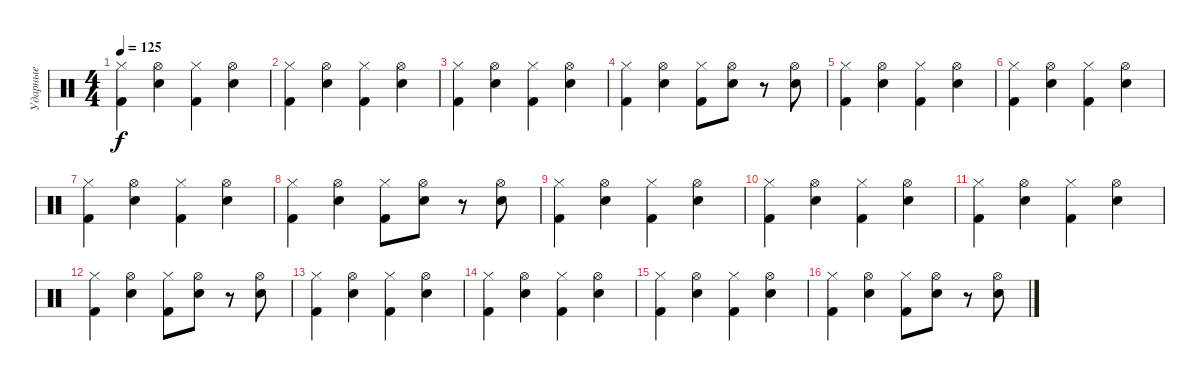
\track ("Ударные" "Ударные") {instrument percussion}
\staff {score}
\articulation defaults
\ts (4 4)
\tempo 125
\clef neutral
\ks c
("Hi-Hat (closed)" "Kick (hit) 2").4{dy f} ("Hi-Hat (open)" "Electric Snare (hit)").4 ("Hi-Hat (closed)" "Kick (hit) 2").4 ("Hi-Hat (open)" "Electric Snare (hit)").4 |
("Hi-Hat (closed)" "Kick (hit) 2").4 ("Hi-Hat (open)" "Electric Snare (hit)").4 ("Hi-Hat (closed)" "Kick (hit) 2").4 ("Hi-Hat (open)" "Electric Snare (hit)").4 |
("Hi-Hat (closed)" "Kick (hit) 2").4 ("Hi-Hat (open)" "Electric Snare (hit)").4 ("Hi-Hat (closed)" "Kick (hit) 2").4 ("Hi-Hat (open)" "Electric Snare (hit)").4 |
("Hi-Hat (closed)" "Kick (hit) 2").4 ("Hi-Hat (open)" "Electric Snare (hit)").4 ("Hi-Hat (closed)" "Kick (hit) 2").8 ("Hi-Hat (open)" "Electric Snare (hit)").8 r.8 ("Hi-Hat (open)" "Electric Snare (hit)").8 |
("Hi-Hat (closed)" "Kick (hit) 2").4 ("Hi-Hat (open)" "Electric Snare (hit)").4 ("Hi-Hat (closed)" "Kick (hit) 2").4 ("Hi-Hat (open)" "Electric Snare (hit)").4 |
("Hi-Hat (closed)" "Kick (hit) 2").4 ("Hi-Hat (open)" "Electric Snare (hit)").4 ("Hi-Hat (closed)" "Kick (hit) 2").4 ("Hi-Hat (open)" "Electric Snare (hit)").4 |
("Hi-Hat (closed)" "Kick (hit) 2").4 ("Hi-Hat (open)" "Electric Snare (hit)").4 ("Hi-Hat (closed)" "Kick (hit) 2").4 ("Hi-Hat (open)" "Electric Snare (hit)").4 |
("Hi-Hat (closed)" "Kick (hit) 2").4 ("Hi-Hat (open)" "Electric Snare (hit)").4 ("Hi-Hat (closed)" "Kick (hit) 2").8 ("Hi-Hat (open)" "Electric Snare (hit)").8 r.8 ("Hi-Hat (open)" "Electric Snare (hit)").8 |
("Hi-Hat (closed)" "Kick (hit) 2").4 ("Hi-Hat (open)" "Electric Snare (hit)").4 ("Hi-Hat (closed)" "Kick (hit) 2").4 ("Hi-Hat (open)" "Electric Snare (hit)").4 |
("Hi-Hat (closed)" "Kick (hit) 2").4 ("Hi-Hat (open)" "Electric Snare (hit)").4 ("Hi-Hat (closed)" "Kick (hit) 2").4 ("Hi-Hat (open)" "Electric Snare (hit)").4 |
("Hi-Hat (closed)" "Kick (hit) 2").4 ("Hi-Hat (open)" "Electric Snare (hit)").4 ("Hi-Hat (closed)" "Kick (hit) 2").4 ("Hi-Hat (open)" "Electric Snare (hit)").4 |
("Hi-Hat (closed)" "Kick (hit) 2").4 ("Hi-Hat (open)" "Electric Snare (hit)").4 ("Hi-Hat (closed)" "Kick (hit) 2").8 ("Hi-Hat (open)" "Electric Snare (hit)").8 r.8 ("Hi-Hat (open)" "Electric Snare (hit)").8 |
("Hi-Hat (closed)" "Kick (hit) 2").4 ("Hi-Hat (open)" "Electric Snare (hit)").4 ("Hi-Hat (closed)" "Kick (hit) 2").4 ("Hi-Hat (open)" "Electric Snare (hit)").4 |
("Hi-Hat (closed)" "Kick (hit) 2").4 ("Hi-Hat (open)" "Electric Snare (hit)").4 ("Hi-Hat (closed)" "Kick (hit) 2").4 ("Hi-Hat (open)" "Electric Snare (hit)").4 |
("Hi-Hat (closed)" "Kick (hit) 2").4 ("Hi-Hat (open)" "Electric Snare (hit)").4 ("Hi-Hat (closed)" "Kick (hit) 2").4 ("Hi-Hat (open)" "Electric Snare (hit)").4 |
("Hi-Hat (closed)" "Kick (hit) 2").4 ("Hi-Hat (open)" "Electric Snare (hit)").4 ("Hi-Hat (closed)" "Kick (hit) 2").8 ("Hi-Hat (open)" "Electric Snare (hit)").8 r.8 ("Hi-Hat (open)" "Electric Snare (hit)").8
